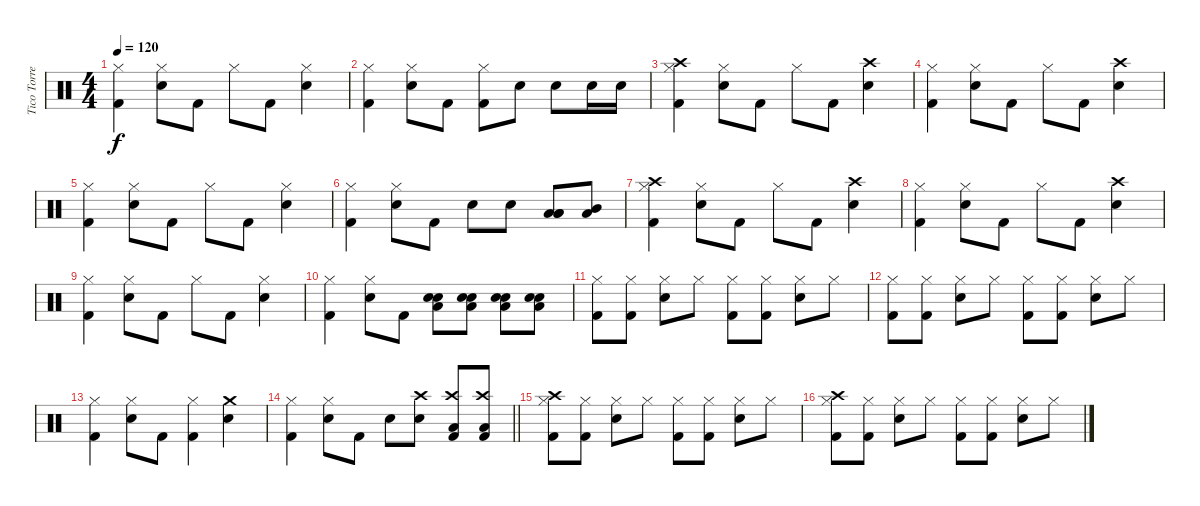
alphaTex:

\track ("Tico Torres (Drums)" "Tico Torre") {instrument percussion}
\staff {score}
\articulation defaults
\ts (4 4)
\tempo 120
\clef neutral
\ks c
("Hi-Hat (closed)" "Kick (hit) 2").4{dy f} ("Hi-Hat (closed)" "Electric Snare (hit)").8 "Kick (hit) 2".8 "Hi-Hat (closed)".8 "Kick (hit) 2".8 ("Hi-Hat (closed)" "Electric Snare (hit)").4 |
("Hi-Hat (closed)" "Kick (hit) 2").4 ("Hi-Hat (closed)" "Electric Snare (hit)").8 "Kick (hit) 2".8 ("Hi-Hat (closed)" "Kick (hit) 2").8 "Electric Snare (hit)".8 "Electric Snare (hit)".8 "Electric Snare (hit)".16 "Electric Snare (hit)".16 |
("Crash high (hit)" "Hi-Hat (closed)" "Kick (hit) 2").4 ("Hi-Hat (closed)" "Electric Snare (hit)").8 "Kick (hit) 2".8 "Hi-Hat (closed)".8 "Kick (hit) 2".8 ("Crash high (hit)" "Electric Snare (hit)").4 |
("Hi-Hat (closed)" "Kick (hit) 2").4 ("Hi-Hat (closed)" "Electric Snare (hit)").8 "Kick (hit) 2".8 "Hi-Hat (closed)".8 "Kick (hit) 2".8 ("Crash high (hit)" "Electric Snare (hit)").4 |
("Hi-Hat (closed)" "Kick (hit) 2").4 ("Hi-Hat (closed)" "Electric Snare (hit)").8 "Kick (hit) 2".8 "Hi-Hat (closed)".8 "Kick (hit) 2".8 ("Hi-Hat (closed)" "Electric Snare (hit)").4 |
("Hi-Hat (closed)" "Kick (hit) 2").4 ("Hi-Hat (closed)" "Electric Snare (hit)").8 "Kick (hit) 2".8 "Electric Snare (hit)".8 "Electric Snare (hit)".8 ("Low Floor Tom (hit)" "Low Tom (hit)" "Low Tom (hit)").8{bd 120} ("Mid Tom (hit)" "Low Tom (hit)").8{bd 120} |
("Crash high (hit)" "Hi-Hat (closed)" "Kick (hit) 2").4 ("Hi-Hat (closed)" "Electric Snare (hit)").8 "Kick (hit) 2".8 "Hi-Hat (closed)".8 "Kick (hit) 2".8 ("Crash high (hit)" "Electric Snare (hit)").4 |
("Hi-Hat (closed)" "Kick (hit) 2").4 ("Hi-Hat (closed)" "Electric Snare (hit)").8 "Kick (hit) 2".8 "Hi-Hat (closed)".8 "Kick (hit) 2".8 ("Crash high (hit)" "Electric Snare (hit)").4 |
("Hi-Hat (closed)" "Kick (hit) 2").4 ("Hi-Hat (closed)" "Electric Snare (hit)").8 "Kick (hit) 2".8 "Hi-Hat (closed)".8 "Kick (hit) 2".8 ("Hi-Hat (closed)" "Electric Snare (hit)").4 |
("Hi-Hat (closed)" "Kick (hit) 2").4 ("Hi-Hat (closed)" "Electric Snare (hit)").8 "Kick (hit) 2".8 ("Low Floor Tom (hit)" "Electric Snare (hit)" "Electric Snare (hit)").8{bd 120} ("Low Floor Tom (hit)" "Electric Snare (hit)" "Electric Snare (hit)").8{bd 120} ("Low Floor Tom (hit)" "Electric Snare (hit)" "Electric Snare (hit)").8{bd 120} ("Low Floor Tom (hit)" "Electric Snare (hit)" "Electric Snare (hit)").8{bd 120} |
("Hi-Hat (closed)" "Kick (hit) 2").8 ("Hi-Hat (closed)" "Kick (hit) 2").8 ("Hi-Hat (closed)" "Electric Snare (hit)").8 "Hi-Hat (closed)".8 ("Hi-Hat (closed)" "Kick (hit) 2").8 ("Hi-Hat (closed)" "Kick (hit) 2").8 ("Hi-Hat (closed)" "Electric Snare (hit)").8 "Hi-Hat (closed)".8 |
("Hi-Hat (closed)" "Kick (hit) 2").8 ("Hi-Hat (closed)" "Kick (hit) 2").8 ("Hi-Hat (closed)" "Electric Snare (hit)").8 "Hi-Hat (closed)".8 ("Hi-Hat (closed)" "Kick (hit) 2").8 ("Hi-Hat (closed)" "Kick (hit) 2").8 ("Hi-Hat (closed)" "Electric Snare (hit)").8 "Hi-Hat (closed)".8 |
("Hi-Hat (closed)" "Kick (hit) 2").4 ("Hi-Hat (closed)" "Electric Snare (hit)").8 "Kick (hit) 2".8 ("Hi-Hat (closed)" "Kick (hit) 2").4 ("Crash medium (hit)" "Electric Snare (hit)").4 |
\barLineRight lightlight
("Hi-Hat (closed)" "Kick (hit) 2").4 ("Hi-Hat (closed)" "Electric Snare (hit)").8 "Kick (hit) 2".8 "Electric Snare (hit)".8 ("Crash high (hit)" "Electric Snare (hit)").8 ("Crash high (hit)" "Low Tom (hit)" "Kick (hit) 2").8 ("Crash high (hit)" "Low Tom (hit)" "Kick (hit) 2").8 |
("Crash high (hit)" "Hi-Hat (closed)" "Kick (hit) 2").8 ("Hi-Hat (closed)" "Kick (hit) 2").8 ("Hi-Hat (closed)" "Electric Snare (hit)").8 "Hi-Hat (closed)".8 ("Hi-Hat (closed)" "Kick (hit) 2").8 ("Hi-Hat (closed)" "Kick (hit) 2").8 ("Hi-Hat (closed)" "Electric Snare (hit)").8 "Hi-Hat (closed)".8 |
("Crash high (hit)" "Hi-Hat (closed)" "Kick (hit) 2").8 ("Hi-Hat (closed)" "Kick (hit) 2").8 ("Hi-Hat (closed)" "Electric Snare (hit)").8 "Hi-Hat (closed)".8 ("Hi-Hat (closed)" "Kick (hit) 2").8 ("Hi-Hat (closed)" "Kick (hit) 2").8 ("Hi-Hat (closed)" "Electric Snare (hit)").8 "Hi-Hat (closed)".8
